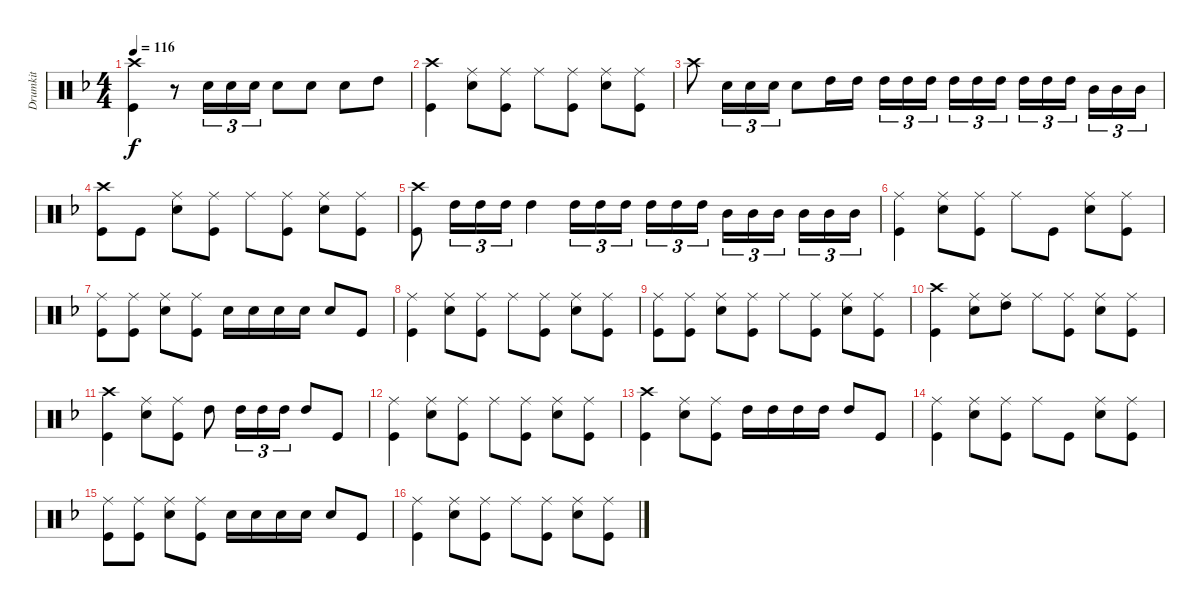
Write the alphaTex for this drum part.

\track ("Drumkit" "Drumkit") {instrument percussion}
\staff {score}
\articulation defaults
\ts (4 4)
\tempo 116
\clef neutral
\ks dminor
("Crash high (hit)" "Kick (hit)").4{dy f} r.8 "Snare (hit) 2".16{tu (3 2)} "Snare (hit) 2".16{tu (3 2)} "Snare (hit) 2".16{tu (3 2)} "Snare (hit) 2".8 "Snare (hit) 2".8 "Snare (hit) 2".8 "High Tom (hit)".8 |
("Crash high (hit)" "Kick (hit)").4 ("Ride (middle)" "Snare (hit) 2").8 ("Ride (middle)" "Kick (hit)").8 "Ride (middle)".8 ("Ride (middle)" "Kick (hit)").8 ("Ride (middle)" "Snare (hit) 2").8 ("Ride (middle)" "Kick (hit)").8 |
"Crash high (hit)".8 "Snare (hit) 2".16{tu (3 2)} "Snare (hit) 2".16{tu (3 2)} "Snare (hit) 2".16{tu (3 2)} "Snare (hit) 2".8 "High Tom (hit)".16 "High Tom (hit)".16 "High Tom (hit)".16{tu (3 2)} "High Tom (hit)".16{tu (3 2)} "High Tom (hit)".16{tu (3 2)} "High Tom (hit)".16{tu (3 2)} "High Tom (hit)".16{tu (3 2)} "High Tom (hit)".16{tu (3 2)} "High Tom (hit)".16{tu (3 2)} "High Tom (hit)".16{tu (3 2)} "High Tom (hit)".16{tu (3 2)} "Mid Tom (hit)".16{tu (3 2)} "Mid Tom (hit)".16{tu (3 2)} "Mid Tom (hit)".16{tu (3 2)} |
("Crash high (hit)" "Kick (hit)").8 "Kick (hit)".8 ("Ride (middle)" "Snare (hit) 2").8 ("Ride (middle)" "Kick (hit)").8 "Ride (middle)".8 ("Ride (middle)" "Kick (hit)").8 ("Ride (middle)" "Snare (hit) 2").8 ("Ride (middle)" "Kick (hit)").8 |
("Crash high (hit)" "Kick (hit)").8 "High Tom (hit)".16{tu (3 2)} "High Tom (hit)".16{tu (3 2)} "High Tom (hit)".16{tu (3 2)} "High Tom (hit)".4 "High Tom (hit)".16{tu (3 2)} "High Tom (hit)".16{tu (3 2)} "High Tom (hit)".16{tu (3 2)} "High Tom (hit)".16{tu (3 2)} "High Tom (hit)".16{tu (3 2)} "High Tom (hit)".16{tu (3 2)} "Mid Tom (hit)".16{tu (3 2)} "Mid Tom (hit)".16{tu (3 2)} "Mid Tom (hit)".16{tu (3 2)} "Mid Tom (hit)".16{tu (3 2)} "Mid Tom (hit)".16{tu (3 2)} "Mid Tom (hit)".16{tu (3 2)} |
("Ride (middle)" "Kick (hit)").4 ("Ride (middle)" "Snare (hit) 2").8 ("Ride (middle)" "Kick (hit)").8 "Ride (middle)".8 "Kick (hit)".8 ("Ride (middle)" "Snare (hit) 2").8 ("Ride (middle)" "Kick (hit)").8 |
("Ride (middle)" "Kick (hit)").8 ("Ride (middle)" "Kick (hit)").8 ("Ride (middle)" "Snare (hit) 2").8 ("Ride (middle)" "Kick (hit)").8 "Snare (hit) 2".16 "Snare (hit) 2".16 "Snare (hit) 2".16 "Snare (hit) 2".16 "Snare (hit) 2".8 "Kick (hit)".8 |
("Ride (middle)" "Kick (hit)").4 ("Ride (middle)" "Snare (hit) 2").8 ("Ride (middle)" "Kick (hit)").8 "Ride (middle)".8 ("Ride (middle)" "Kick (hit)").8 ("Ride (middle)" "Snare (hit) 2").8 ("Ride (middle)" "Kick (hit)").8 |
("Ride (middle)" "Kick (hit)").8 ("Ride (middle)" "Kick (hit)").8 ("Ride (middle)" "Snare (hit) 2").8 ("Ride (middle)" "Kick (hit)").8 "Ride (middle)".8 ("Ride (middle)" "Kick (hit)").8 ("Ride (middle)" "Snare (hit) 2").8 ("Ride (middle)" "Kick (hit)").8 |
("Crash high (hit)" "Kick (hit)").4 ("Ride (middle)" "Snare (hit) 2").8 ("Ride (middle)" "High Tom (hit)").8 "Ride (middle)".8 ("Ride (middle)" "Kick (hit)").8 ("Ride (middle)" "Snare (hit) 2").8 ("Ride (middle)" "Kick (hit)").8 |
("Crash high (hit)" "Kick (hit)").4 ("Ride (middle)" "Snare (hit) 2").8 ("Ride (middle)" "Kick (hit)").8 "High Tom (hit)".8 "High Tom (hit)".16{tu (3 2)} "High Tom (hit)".16{tu (3 2)} "High Tom (hit)".16{tu (3 2)} "High Tom (hit)".8 "Kick (hit)".8 |
("Ride (middle)" "Kick (hit)").4 ("Ride (middle)" "Snare (hit) 2").8 ("Ride (middle)" "Kick (hit)").8 "Ride (middle)".8 ("Ride (middle)" "Kick (hit)").8 ("Ride (middle)" "Snare (hit) 2").8 ("Ride (middle)" "Kick (hit)").8 |
("Crash high (hit)" "Kick (hit)").4 ("Ride (middle)" "Snare (hit) 2").8 ("Ride (middle)" "Kick (hit)").8 "High Tom (hit)".16 "High Tom (hit)".16 "High Tom (hit)".16 "High Tom (hit)".16 "High Tom (hit)".8 "Kick (hit)".8 |
("Ride (middle)" "Kick (hit)").4 ("Ride (middle)" "Snare (hit) 2").8 ("Ride (middle)" "Kick (hit)").8 "Ride (middle)".8 "Kick (hit)".8 ("Ride (middle)" "Snare (hit) 2").8 ("Ride (middle)" "Kick (hit)").8 |
("Ride (middle)" "Kick (hit)").8 ("Ride (middle)" "Kick (hit)").8 ("Ride (middle)" "Snare (hit) 2").8 ("Ride (middle)" "Kick (hit)").8 "Snare (hit) 2".16 "Snare (hit) 2".16 "Snare (hit) 2".16 "Snare (hit) 2".16 "Snare (hit) 2".8 "Kick (hit)".8 |
("Ride (middle)" "Kick (hit)").4 ("Ride (middle)" "Snare (hit) 2").8 ("Ride (middle)" "Kick (hit)").8 "Ride (middle)".8 ("Ride (middle)" "Kick (hit)").8 ("Ride (middle)" "Snare (hit) 2").8 ("Ride (middle)" "Kick (hit)").8
